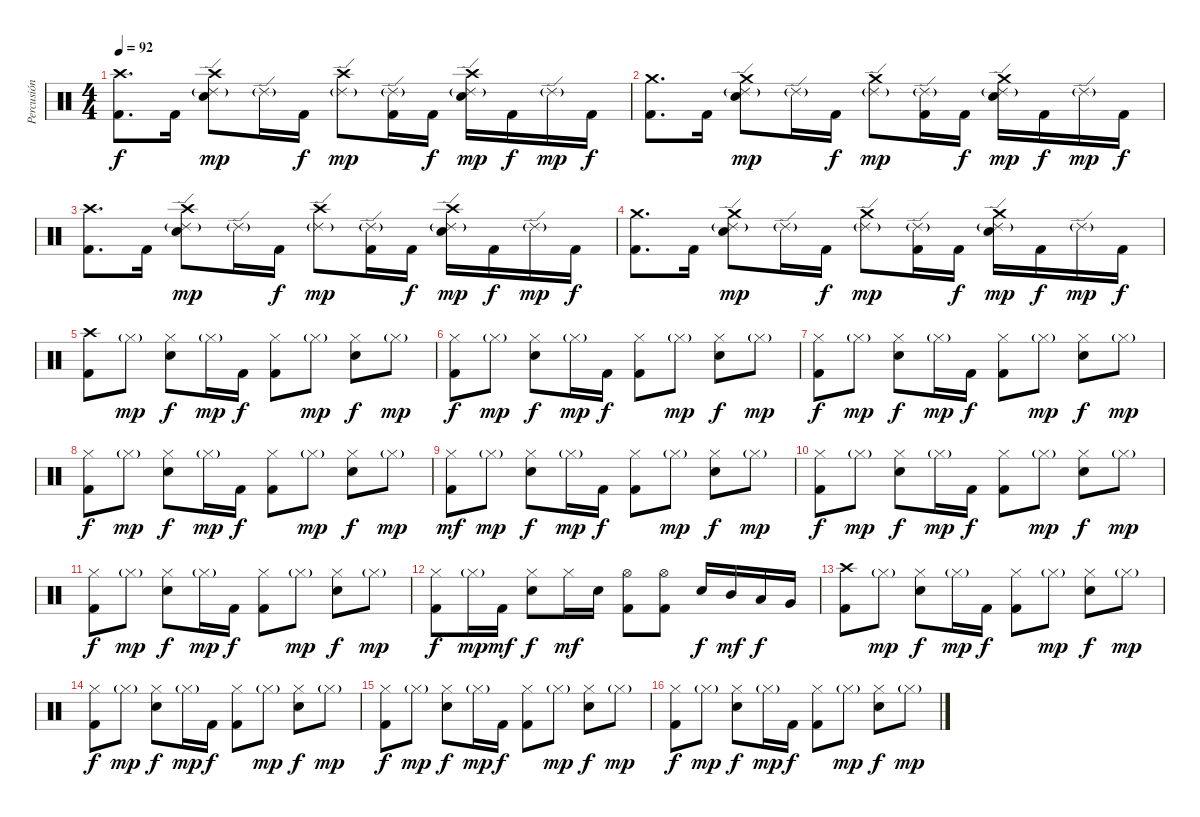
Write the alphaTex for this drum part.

\track ("Percusión" "Percusión") {instrument percussion}
\staff {score}
\articulation defaults
\ts (4 4)
\tempo 92
\clef neutral
\ks c
("Crash high (hit)" "Kick (hit) 2").8{d dy f} "Kick (hit) 2".16 ("Crash high (hit)" "Ride (edge) 2"{g} "Snare (hit) 2").8{dy mp} "Ride (edge) 2"{g}.16 "Kick (hit) 2".16{dy f} ("Crash high (hit)" "Ride (edge) 2"{g}).8{dy mp} ("Ride (edge) 2"{g} "Kick (hit) 2").16 "Kick (hit) 2".16{dy f} ("Crash high (hit)" "Ride (edge) 2"{g} "Snare (hit) 2").16{dy mp} "Kick (hit) 2".16{dy f} "Ride (edge) 2"{g}.16{dy mp} "Kick (hit) 2".16{dy f} |
("Crash medium (hit)" "Kick (hit) 2").8{d} "Kick (hit) 2".16 ("Crash medium (hit)" "Ride (edge) 2"{g} "Snare (hit) 2").8{dy mp} "Ride (edge) 2"{g}.16 "Kick (hit) 2".16{dy f} ("Crash medium (hit)" "Ride (edge) 2"{g}).8{dy mp} ("Ride (edge) 2"{g} "Kick (hit) 2").16 "Kick (hit) 2".16{dy f} ("Crash medium (hit)" "Ride (edge) 2"{g} "Snare (hit) 2").16{dy mp} "Kick (hit) 2".16{dy f} "Ride (edge) 2"{g}.16{dy mp} "Kick (hit) 2".16{dy f} |
("Crash high (hit)" "Kick (hit) 2").8{d} "Kick (hit) 2".16 ("Crash high (hit)" "Ride (edge) 2"{g} "Snare (hit) 2").8{dy mp} "Ride (edge) 2"{g}.16 "Kick (hit) 2".16{dy f} ("Crash high (hit)" "Ride (edge) 2"{g}).8{dy mp} ("Ride (edge) 2"{g} "Kick (hit) 2").16 "Kick (hit) 2".16{dy f} ("Crash high (hit)" "Ride (edge) 2"{g} "Snare (hit) 2").16{dy mp} "Kick (hit) 2".16{dy f} "Ride (edge) 2"{g}.16{dy mp} "Kick (hit) 2".16{dy f} |
("Crash medium (hit)" "Kick (hit) 2").8{d} "Kick (hit) 2".16 ("Crash medium (hit)" "Ride (edge) 2"{g} "Snare (hit) 2").8{dy mp} "Ride (edge) 2"{g}.16 "Kick (hit) 2".16{dy f} ("Crash medium (hit)" "Ride (edge) 2"{g}).8{dy mp} ("Ride (edge) 2"{g} "Kick (hit) 2").16 "Kick (hit) 2".16{dy f} ("Crash medium (hit)" "Ride (edge) 2"{g} "Snare (hit) 2").16{dy mp} "Kick (hit) 2".16{dy f} "Ride (edge) 2"{g}.16{dy mp} "Kick (hit) 2".16{dy f} |
("Crash high (hit)" "Kick (hit) 2").8 "Hi-Hat (closed)"{g}.8{dy mp} ("Hi-Hat (closed)" "Snare (hit) 2").8{dy f} "Hi-Hat (closed)"{g}.16{dy mp} "Kick (hit) 2".16{dy f} ("Hi-Hat (closed)" "Kick (hit) 2").8 "Hi-Hat (closed)"{g}.8{dy mp} ("Hi-Hat (closed)" "Snare (hit) 2").8{dy f} "Hi-Hat (closed)"{g}.8{dy mp} |
("Hi-Hat (closed)" "Kick (hit) 2").8{dy f} "Hi-Hat (closed)"{g}.8{dy mp} ("Hi-Hat (closed)" "Snare (hit) 2").8{dy f} "Hi-Hat (closed)"{g}.16{dy mp} "Kick (hit) 2".16{dy f} ("Hi-Hat (closed)" "Kick (hit) 2").8 "Hi-Hat (closed)"{g}.8{dy mp} ("Hi-Hat (closed)" "Snare (hit) 2").8{dy f} "Hi-Hat (closed)"{g}.8{dy mp} |
("Hi-Hat (closed)" "Kick (hit) 2").8{dy f} "Hi-Hat (closed)"{g}.8{dy mp} ("Hi-Hat (closed)" "Snare (hit) 2").8{dy f} "Hi-Hat (closed)"{g}.16{dy mp} "Kick (hit) 2".16{dy f} ("Hi-Hat (closed)" "Kick (hit) 2").8 "Hi-Hat (closed)"{g}.8{dy mp} ("Hi-Hat (closed)" "Snare (hit) 2").8{dy f} "Hi-Hat (closed)"{g}.8{dy mp} |
("Hi-Hat (closed)" "Kick (hit) 2").8{dy f} "Hi-Hat (closed)"{g}.8{dy mp} ("Hi-Hat (closed)" "Snare (hit) 2").8{dy f} "Hi-Hat (closed)"{g}.16{dy mp} "Kick (hit) 2".16{dy f} ("Hi-Hat (closed)" "Kick (hit) 2").8 "Hi-Hat (closed)"{g}.8{dy mp} ("Hi-Hat (closed)" "Snare (hit) 2").8{dy f} "Hi-Hat (closed)"{g}.8{dy mp} |
("Hi-Hat (closed)" "Kick (hit) 2").8{dy mf} "Hi-Hat (closed)"{g}.8{dy mp} ("Hi-Hat (closed)" "Snare (hit) 2").8{dy f} "Hi-Hat (closed)"{g}.16{dy mp} "Kick (hit) 2".16{dy f} ("Hi-Hat (closed)" "Kick (hit) 2").8 "Hi-Hat (closed)"{g}.8{dy mp} ("Hi-Hat (closed)" "Snare (hit) 2").8{dy f} "Hi-Hat (closed)"{g}.8{dy mp} |
("Hi-Hat (closed)" "Kick (hit) 2").8{dy f} "Hi-Hat (closed)"{g}.8{dy mp} ("Hi-Hat (closed)" "Snare (hit) 2").8{dy f} "Hi-Hat (closed)"{g}.16{dy mp} "Kick (hit) 2".16{dy f} ("Hi-Hat (closed)" "Kick (hit) 2").8 "Hi-Hat (closed)"{g}.8{dy mp} ("Hi-Hat (closed)" "Snare (hit) 2").8{dy f} "Hi-Hat (closed)"{g}.8{dy mp} |
("Hi-Hat (closed)" "Kick (hit) 2").8{dy f} "Hi-Hat (closed)"{g}.8{dy mp} ("Hi-Hat (closed)" "Snare (hit) 2").8{dy f} "Hi-Hat (closed)"{g}.16{dy mp} "Kick (hit) 2".16{dy f} ("Hi-Hat (closed)" "Kick (hit) 2").8 "Hi-Hat (closed)"{g}.8{dy mp} ("Hi-Hat (closed)" "Snare (hit) 2").8{dy f} "Hi-Hat (closed)"{g}.8{dy mp} |
("Hi-Hat (closed)" "Kick (hit) 2").8{dy f} "Hi-Hat (closed)"{g}.16{dy mp} "Kick (hit) 2".16{dy mf} ("Hi-Hat (closed)" "Snare (hit) 2").8{dy f} "Hi-Hat (closed)".16{dy mf} "Snare (hit) 2".16 ("Hi-Hat (open)" "Kick (hit) 2").8 ("Hi-Hat (open)" "Kick (hit) 2").8 "Snare (hit) 2".16{dy f} "Mid Tom (hit)".16{dy mf} "Low Tom (hit)".16{dy f} "Very Low Tom (hit)".16 |
("Crash high (hit)" "Kick (hit) 2").8 "Hi-Hat (closed)"{g}.8{dy mp} ("Hi-Hat (closed)" "Snare (hit) 2").8{dy f} "Hi-Hat (closed)"{g}.16{dy mp} "Kick (hit) 2".16{dy f} ("Hi-Hat (closed)" "Kick (hit) 2").8 "Hi-Hat (closed)"{g}.8{dy mp} ("Hi-Hat (closed)" "Snare (hit) 2").8{dy f} "Hi-Hat (closed)"{g}.8{dy mp} |
("Hi-Hat (closed)" "Kick (hit) 2").8{dy f} "Hi-Hat (closed)"{g}.8{dy mp} ("Hi-Hat (closed)" "Snare (hit) 2").8{dy f} "Hi-Hat (closed)"{g}.16{dy mp} "Kick (hit) 2".16{dy f} ("Hi-Hat (closed)" "Kick (hit) 2").8 "Hi-Hat (closed)"{g}.8{dy mp} ("Hi-Hat (closed)" "Snare (hit) 2").8{dy f} "Hi-Hat (closed)"{g}.8{dy mp} |
("Hi-Hat (closed)" "Kick (hit) 2").8{dy f} "Hi-Hat (closed)"{g}.8{dy mp} ("Hi-Hat (closed)" "Snare (hit) 2").8{dy f} "Hi-Hat (closed)"{g}.16{dy mp} "Kick (hit) 2".16{dy f} ("Hi-Hat (closed)" "Kick (hit) 2").8 "Hi-Hat (closed)"{g}.8{dy mp} ("Hi-Hat (closed)" "Snare (hit) 2").8{dy f} "Hi-Hat (closed)"{g}.8{dy mp} |
("Hi-Hat (closed)" "Kick (hit) 2").8{dy f} "Hi-Hat (closed)"{g}.8{dy mp} ("Hi-Hat (closed)" "Snare (hit) 2").8{dy f} "Hi-Hat (closed)"{g}.16{dy mp} "Kick (hit) 2".16{dy f} ("Hi-Hat (closed)" "Kick (hit) 2").8 "Hi-Hat (closed)"{g}.8{dy mp} ("Hi-Hat (closed)" "Snare (hit) 2").8{dy f} "Hi-Hat (closed)"{g}.8{dy mp}
